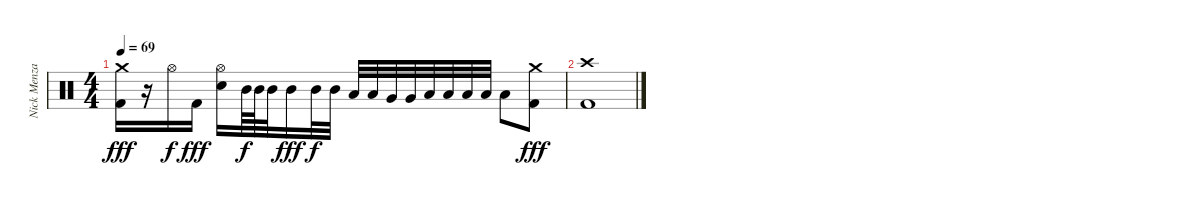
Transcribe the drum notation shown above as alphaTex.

\track ("Nick Menza" "Nick Menza") {instrument percussion}
\staff {score}
\articulation defaults
\ts (4 4)
\tempo 69
\clef neutral
\ks c
("Kick (hit) 2" "Crash medium (hit)").16{dy fff} r.16 "Hi-Hat (open)".16{dy f} "Kick (hit) 2".16{dy fff} ("Electric Snare (hit)" "Hi-Hat (open)").16 "Mid Tom (hit)".64{dy f} "Mid Tom (hit)".64 "Mid Tom (hit)".32 "Mid Tom (hit)".16{dy fff} "Mid Tom (hit)".32{dy f} "Mid Tom (hit)".32 "Low Tom (hit)".32 "Low Tom (hit)".32 "Very Low Tom (hit)".32 "Very Low Tom (hit)".32 "Low Floor Tom (hit)".32 "Low Floor Tom (hit)".32 "Low Floor Tom (hit)".32 "Low Floor Tom (hit)".32 "Low Floor Tom (hit)".8 ("Kick (hit) 2" "Crash medium (hit)").8{dy fff} |
("Kick (hit) 2" "Crash high (hit)").1
